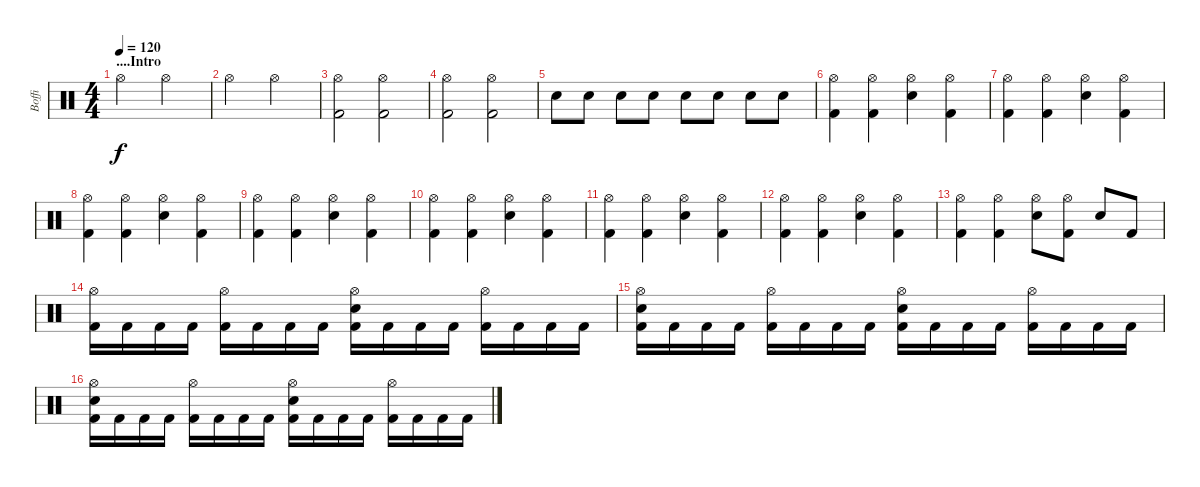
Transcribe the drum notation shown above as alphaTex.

\track ("Boffi" "Boffi") {instrument percussion}
\staff {score}
\articulation defaults
\ts (4 4)
\section ("" "....Intro")
\tempo 120
\clef neutral
\ks c "Hi-Hat (open)".2{dy f} "Hi-Hat (open)".2
|
"Hi-Hat (open)".2 "Hi-Hat (open)".2 |
("Hi-Hat (open)" "Kick (hit) 2").2 ("Hi-Hat (open)" "Kick (hit) 2").2 |
("Hi-Hat (open)" "Kick (hit) 2").2 ("Hi-Hat (open)" "Kick (hit) 2").2 |
"Snare (hit) 2".8 "Snare (hit) 2".8 "Snare (hit) 2".8 "Snare (hit) 2".8 "Snare (hit) 2".8 "Snare (hit) 2".8 "Snare (hit) 2".8 "Snare (hit) 2".8 |
("Hi-Hat (open)" "Kick (hit) 2").4 ("Hi-Hat (open)" "Kick (hit) 2").4 ("Hi-Hat (open)" "Snare (hit) 2").4 ("Hi-Hat (open)" "Kick (hit) 2").4 |
("Hi-Hat (open)" "Kick (hit) 2").4 ("Hi-Hat (open)" "Kick (hit) 2").4 ("Hi-Hat (open)" "Snare (hit) 2").4 ("Hi-Hat (open)" "Kick (hit) 2").4 |
("Hi-Hat (open)" "Kick (hit) 2").4 ("Hi-Hat (open)" "Kick (hit) 2").4 ("Hi-Hat (open)" "Snare (hit) 2").4 ("Hi-Hat (open)" "Kick (hit) 2").4 |
("Hi-Hat (open)" "Kick (hit) 2").4 ("Hi-Hat (open)" "Kick (hit) 2").4 ("Hi-Hat (open)" "Snare (hit) 2").4 ("Hi-Hat (open)" "Kick (hit) 2").4 |
("Hi-Hat (open)" "Kick (hit) 2").4 ("Hi-Hat (open)" "Kick (hit) 2").4 ("Hi-Hat (open)" "Snare (hit) 2").4 ("Hi-Hat (open)" "Kick (hit) 2").4 |
("Hi-Hat (open)" "Kick (hit) 2").4 ("Hi-Hat (open)" "Kick (hit) 2").4 ("Hi-Hat (open)" "Snare (hit) 2").4 ("Hi-Hat (open)" "Kick (hit) 2").4 |
("Hi-Hat (open)" "Kick (hit) 2").4 ("Hi-Hat (open)" "Kick (hit) 2").4 ("Hi-Hat (open)" "Snare (hit) 2").4 ("Hi-Hat (open)" "Kick (hit) 2").4 |
("Hi-Hat (open)" "Kick (hit) 2").4 ("Hi-Hat (open)" "Kick (hit) 2").4 ("Hi-Hat (open)" "Snare (hit) 2").8 ("Hi-Hat (open)" "Kick (hit) 2").8 "Snare (hit) 2".8 "Kick (hit) 2".8 |
("Kick (hit) 2" "Hi-Hat (open)").16 "Kick (hit) 2".16 "Kick (hit) 2".16 "Kick (hit) 2".16 ("Kick (hit) 2" "Hi-Hat (open)").16 "Kick (hit) 2".16 "Kick (hit) 2".16 "Kick (hit) 2".16 ("Snare (hit) 2" "Kick (hit) 2" "Hi-Hat (open)").16 "Kick (hit) 2".16 "Kick (hit) 2".16 "Kick (hit) 2".16 ("Kick (hit) 2" "Hi-Hat (open)").16 "Kick (hit) 2".16 "Kick (hit) 2".16 "Kick (hit) 2".16 |
("Snare (hit) 2" "Kick (hit) 2" "Hi-Hat (open)").16 "Kick (hit) 2".16 "Kick (hit) 2".16 "Kick (hit) 2".16 ("Kick (hit) 2" "Hi-Hat (open)").16 "Kick (hit) 2".16 "Kick (hit) 2".16 "Kick (hit) 2".16 ("Snare (hit) 2" "Kick (hit) 2" "Hi-Hat (open)").16 "Kick (hit) 2".16 "Kick (hit) 2".16 "Kick (hit) 2".16 ("Kick (hit) 2" "Hi-Hat (open)").16 "Kick (hit) 2".16 "Kick (hit) 2".16 "Kick (hit) 2".16 |
("Snare (hit) 2" "Kick (hit) 2" "Hi-Hat (open)").16 "Kick (hit) 2".16 "Kick (hit) 2".16 "Kick (hit) 2".16 ("Kick (hit) 2" "Hi-Hat (open)").16 "Kick (hit) 2".16 "Kick (hit) 2".16 "Kick (hit) 2".16 ("Snare (hit) 2" "Kick (hit) 2" "Hi-Hat (open)").16 "Kick (hit) 2".16 "Kick (hit) 2".16 "Kick (hit) 2".16 ("Kick (hit) 2" "Hi-Hat (open)").16 "Kick (hit) 2".16 "Kick (hit) 2".16 "Kick (hit) 2".16
